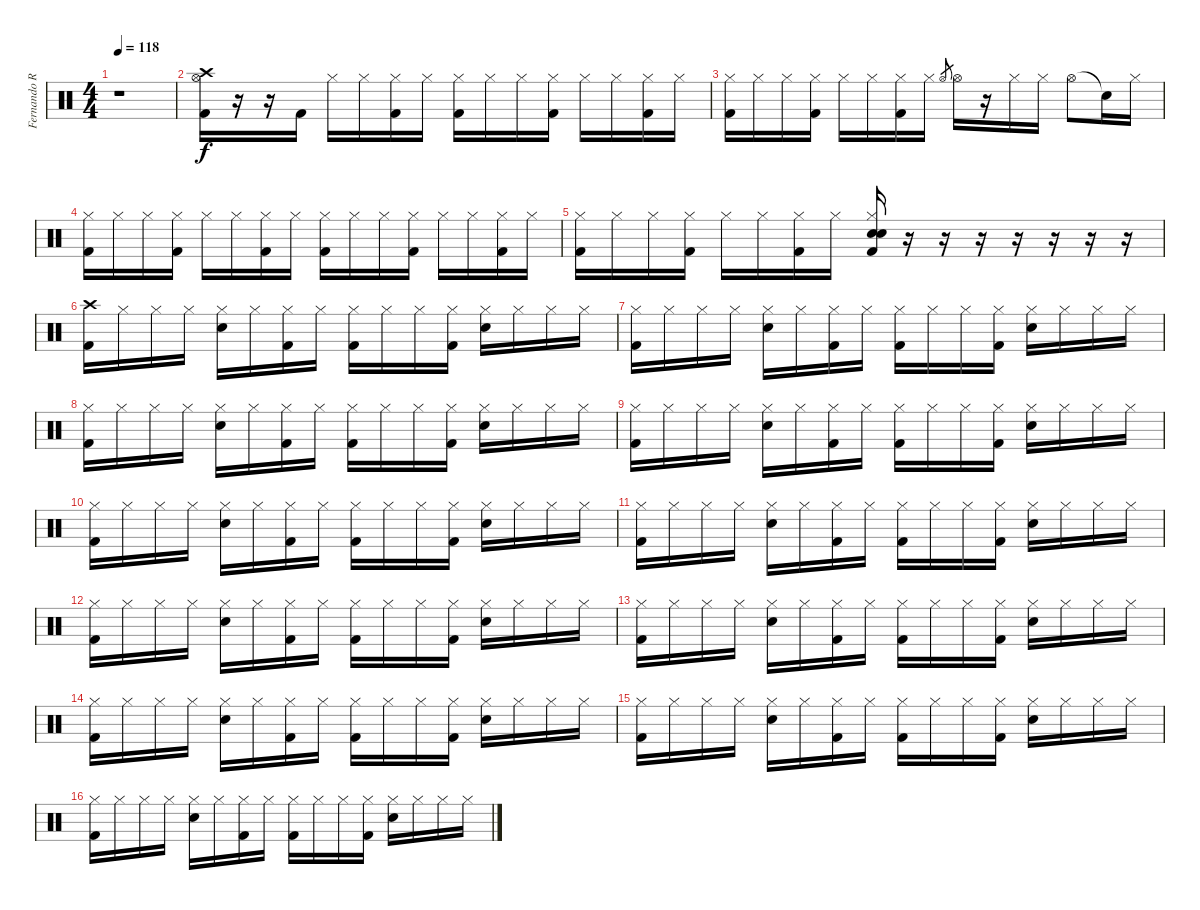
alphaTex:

\track ("Fernando Ricciardi" "Fernando R") {instrument percussion}
\staff {score}
\articulation defaults
\ts (4 4)
\tempo 118
\clef neutral
\ks c
r.1{dy f} |
("Hi-Hat (open)" "Crash high (hit)" "Kick (hit) 2").16 r.16 r.16 "Kick (hit) 2".16 "Hi-Hat (closed)".16 "Hi-Hat (closed)".16 ("Hi-Hat (closed)" "Kick (hit) 2").16 "Hi-Hat (closed)".16 ("Hi-Hat (closed)" "Kick (hit) 2").16 "Hi-Hat (closed)".16 "Hi-Hat (closed)".16 ("Hi-Hat (closed)" "Kick (hit) 2").16 "Hi-Hat (closed)".16 "Hi-Hat (closed)".16 ("Hi-Hat (closed)" "Kick (hit) 2").16 "Hi-Hat (closed)".16 |
("Hi-Hat (closed)" "Kick (hit) 2").16 "Hi-Hat (closed)".16 "Hi-Hat (closed)".16 ("Hi-Hat (closed)" "Kick (hit) 2").16 "Hi-Hat (closed)".16 "Hi-Hat (closed)".16 ("Hi-Hat (closed)" "Kick (hit) 2").16 "Hi-Hat (closed)".16 "Hi-Hat (open)".8{gr} "Hi-Hat (open)".16 r.16 "Hi-Hat (closed)".16 "Hi-Hat (closed)".16 "Hi-Hat (open)"{tr (46 32)}.8 "Snare (hit)"{t}.16 "Hi-Hat (closed)".16 |
("Hi-Hat (closed)" "Kick (hit) 2").16 "Hi-Hat (closed)".16 "Hi-Hat (closed)".16 ("Hi-Hat (closed)" "Kick (hit) 2").16 "Hi-Hat (closed)".16 "Hi-Hat (closed)".16 ("Hi-Hat (closed)" "Kick (hit) 2").16 "Hi-Hat (closed)".16 ("Hi-Hat (closed)" "Kick (hit) 2").16 "Hi-Hat (closed)".16 "Hi-Hat (closed)".16 ("Hi-Hat (closed)" "Kick (hit) 2").16 "Hi-Hat (closed)".16 "Hi-Hat (closed)".16 ("Hi-Hat (closed)" "Kick (hit) 2").16 "Hi-Hat (closed)".16 |
("Hi-Hat (closed)" "Kick (hit) 2").16 "Hi-Hat (closed)".16 "Hi-Hat (closed)".16 ("Hi-Hat (closed)" "Kick (hit) 2").16 "Hi-Hat (closed)".16 "Hi-Hat (closed)".16 ("Hi-Hat (closed)" "Kick (hit) 2").16 "Hi-Hat (closed)".16 ("Snare (hit) 2" "Hi-Hat (closed)" "Electric Snare (hit)" "Kick (hit) 2").16 r.16 r.16 r.16 r.16 r.16 r.16 r.16 |
("Crash high (hit)" "Kick (hit) 2").16 "Hi-Hat (closed)".16 "Hi-Hat (closed)".16 "Hi-Hat (closed)".16 ("Hi-Hat (closed)" "Snare (hit) 2").16 "Hi-Hat (closed)".16 ("Hi-Hat (closed)" "Kick (hit) 2").16 "Hi-Hat (closed)".16 ("Hi-Hat (closed)" "Kick (hit) 2").16 "Hi-Hat (closed)".16 "Hi-Hat (closed)".16 ("Hi-Hat (closed)" "Kick (hit) 2").16 ("Hi-Hat (closed)" "Snare (hit) 2").16 "Hi-Hat (closed)".16 "Hi-Hat (closed)".16 "Hi-Hat (closed)".16 |
("Hi-Hat (closed)" "Kick (hit) 2").16 "Hi-Hat (closed)".16 "Hi-Hat (closed)".16 "Hi-Hat (closed)".16 ("Hi-Hat (closed)" "Snare (hit) 2").16 "Hi-Hat (closed)".16 ("Hi-Hat (closed)" "Kick (hit) 2").16 "Hi-Hat (closed)".16 ("Hi-Hat (closed)" "Kick (hit) 2").16 "Hi-Hat (closed)".16 "Hi-Hat (closed)".16 ("Hi-Hat (closed)" "Kick (hit) 2").16 ("Hi-Hat (closed)" "Snare (hit) 2").16 "Hi-Hat (closed)".16 "Hi-Hat (closed)".16 "Hi-Hat (closed)".16 |
("Hi-Hat (closed)" "Kick (hit) 2").16 "Hi-Hat (closed)".16 "Hi-Hat (closed)".16 "Hi-Hat (closed)".16 ("Hi-Hat (closed)" "Snare (hit) 2").16 "Hi-Hat (closed)".16 ("Hi-Hat (closed)" "Kick (hit) 2").16 "Hi-Hat (closed)".16 ("Hi-Hat (closed)" "Kick (hit) 2").16 "Hi-Hat (closed)".16 "Hi-Hat (closed)".16 ("Hi-Hat (closed)" "Kick (hit) 2").16 ("Hi-Hat (closed)" "Snare (hit) 2").16 "Hi-Hat (closed)".16 "Hi-Hat (closed)".16 "Hi-Hat (closed)".16 |
("Hi-Hat (closed)" "Kick (hit) 2").16 "Hi-Hat (closed)".16 "Hi-Hat (closed)".16 "Hi-Hat (closed)".16 ("Hi-Hat (closed)" "Snare (hit) 2").16 "Hi-Hat (closed)".16 ("Hi-Hat (closed)" "Kick (hit) 2").16 "Hi-Hat (closed)".16 ("Hi-Hat (closed)" "Kick (hit) 2").16 "Hi-Hat (closed)".16 "Hi-Hat (closed)".16 ("Hi-Hat (closed)" "Kick (hit) 2").16 ("Hi-Hat (closed)" "Snare (hit) 2").16 "Hi-Hat (closed)".16 "Hi-Hat (closed)".16 "Hi-Hat (closed)".16 |
("Hi-Hat (closed)" "Kick (hit) 2").16 "Hi-Hat (closed)".16 "Hi-Hat (closed)".16 "Hi-Hat (closed)".16 ("Hi-Hat (closed)" "Snare (hit) 2").16 "Hi-Hat (closed)".16 ("Hi-Hat (closed)" "Kick (hit) 2").16 "Hi-Hat (closed)".16 ("Hi-Hat (closed)" "Kick (hit) 2").16 "Hi-Hat (closed)".16 "Hi-Hat (closed)".16 ("Hi-Hat (closed)" "Kick (hit) 2").16 ("Hi-Hat (closed)" "Snare (hit) 2").16 "Hi-Hat (closed)".16 "Hi-Hat (closed)".16 "Hi-Hat (closed)".16 |
("Hi-Hat (closed)" "Kick (hit) 2").16 "Hi-Hat (closed)".16 "Hi-Hat (closed)".16 "Hi-Hat (closed)".16 ("Hi-Hat (closed)" "Snare (hit) 2").16 "Hi-Hat (closed)".16 ("Hi-Hat (closed)" "Kick (hit) 2").16 "Hi-Hat (closed)".16 ("Hi-Hat (closed)" "Kick (hit) 2").16 "Hi-Hat (closed)".16 "Hi-Hat (closed)".16 ("Hi-Hat (closed)" "Kick (hit) 2").16 ("Hi-Hat (closed)" "Snare (hit) 2").16 "Hi-Hat (closed)".16 "Hi-Hat (closed)".16 "Hi-Hat (closed)".16 |
("Hi-Hat (closed)" "Kick (hit) 2").16 "Hi-Hat (closed)".16 "Hi-Hat (closed)".16 "Hi-Hat (closed)".16 ("Hi-Hat (closed)" "Snare (hit) 2").16 "Hi-Hat (closed)".16 ("Hi-Hat (closed)" "Kick (hit) 2").16 "Hi-Hat (closed)".16 ("Hi-Hat (closed)" "Kick (hit) 2").16 "Hi-Hat (closed)".16 "Hi-Hat (closed)".16 ("Hi-Hat (closed)" "Kick (hit) 2").16 ("Hi-Hat (closed)" "Snare (hit) 2").16 "Hi-Hat (closed)".16 "Hi-Hat (closed)".16 "Hi-Hat (closed)".16 |
("Hi-Hat (closed)" "Kick (hit) 2").16 "Hi-Hat (closed)".16 "Hi-Hat (closed)".16 "Hi-Hat (closed)".16 ("Hi-Hat (closed)" "Snare (hit) 2").16 "Hi-Hat (closed)".16 ("Hi-Hat (closed)" "Kick (hit) 2").16 "Hi-Hat (closed)".16 ("Hi-Hat (closed)" "Kick (hit) 2").16 "Hi-Hat (closed)".16 "Hi-Hat (closed)".16 ("Hi-Hat (closed)" "Kick (hit) 2").16 ("Hi-Hat (closed)" "Snare (hit) 2").16 "Hi-Hat (closed)".16 "Hi-Hat (closed)".16 "Hi-Hat (closed)".16 |
("Hi-Hat (closed)" "Kick (hit) 2").16 "Hi-Hat (closed)".16 "Hi-Hat (closed)".16 "Hi-Hat (closed)".16 ("Hi-Hat (closed)" "Snare (hit) 2").16 "Hi-Hat (closed)".16 ("Hi-Hat (closed)" "Kick (hit) 2").16 "Hi-Hat (closed)".16 ("Hi-Hat (closed)" "Kick (hit) 2").16 "Hi-Hat (closed)".16 "Hi-Hat (closed)".16 ("Hi-Hat (closed)" "Kick (hit) 2").16 ("Hi-Hat (closed)" "Snare (hit) 2").16 "Hi-Hat (closed)".16 "Hi-Hat (closed)".16 "Hi-Hat (closed)".16 |
("Hi-Hat (closed)" "Kick (hit) 2").16 "Hi-Hat (closed)".16 "Hi-Hat (closed)".16 "Hi-Hat (closed)".16 ("Hi-Hat (closed)" "Snare (hit) 2").16 "Hi-Hat (closed)".16 ("Hi-Hat (closed)" "Kick (hit) 2").16 "Hi-Hat (closed)".16 ("Hi-Hat (closed)" "Kick (hit) 2").16 "Hi-Hat (closed)".16 "Hi-Hat (closed)".16 ("Hi-Hat (closed)" "Kick (hit) 2").16 ("Hi-Hat (closed)" "Snare (hit) 2").16 "Hi-Hat (closed)".16 "Hi-Hat (closed)".16 "Hi-Hat (closed)".16 |
("Hi-Hat (closed)" "Kick (hit) 2").16 "Hi-Hat (closed)".16 "Hi-Hat (closed)".16 "Hi-Hat (closed)".16 ("Hi-Hat (closed)" "Snare (hit) 2").16 "Hi-Hat (closed)".16 ("Hi-Hat (closed)" "Kick (hit) 2").16 "Hi-Hat (closed)".16 ("Hi-Hat (closed)" "Kick (hit) 2").16 "Hi-Hat (closed)".16 "Hi-Hat (closed)".16 ("Hi-Hat (closed)" "Kick (hit) 2").16 ("Hi-Hat (closed)" "Snare (hit) 2").16 "Hi-Hat (closed)".16 "Hi-Hat (closed)".16 "Hi-Hat (closed)".16
